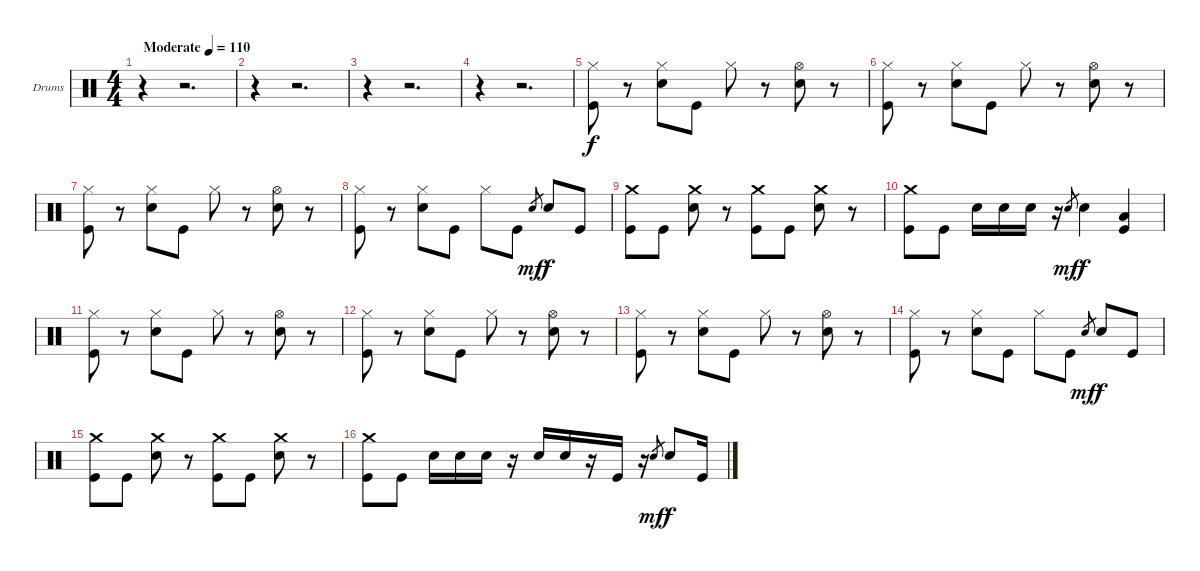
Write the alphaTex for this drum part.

\bracketExtendMode groupsimilarinstruments
\firstSystemTrackNameOrientation horizontal
\otherSystemsTrackNameOrientation horizontal
\track ("Drumkit" "Drums") {instrument percussion}
\staff {score}
\articulation defaults
\ts (4 4)
\beaming (8 2 2 2 2)
\tempo (110 "Moderate")
\clef neutral
\ks c
r.4{dy f} r.2{d} |
r.4 r.2{d} |
r.4 r.2{d} |
r.4 r.2{d} |
("Hi-Hat (closed)" "Kick (hit)").8 r.8 ("Hi-Hat (closed)" "Snare (hit) 2").8 "Kick (hit)".8 "Hi-Hat (closed)".8 r.8 ("Hi-Hat (open)" "Snare (hit) 2").8 r.8 |
("Hi-Hat (closed)" "Kick (hit)").8 r.8 ("Hi-Hat (closed)" "Snare (hit) 2").8 "Kick (hit)".8 "Hi-Hat (closed)".8 r.8 ("Hi-Hat (open)" "Snare (hit) 2").8 r.8 |
("Hi-Hat (closed)" "Kick (hit)").8 r.8 ("Hi-Hat (closed)" "Snare (hit) 2").8 "Kick (hit)".8 "Hi-Hat (closed)".8 r.8 ("Hi-Hat (open)" "Snare (hit) 2").8 r.8 |
("Hi-Hat (closed)" "Kick (hit)").8 r.8 ("Hi-Hat (closed)" "Snare (hit) 2").8 "Kick (hit)".8 "Hi-Hat (closed)".8 "Kick (hit)".8 "Snare (hit) 2".8{gr dy mf} "Snare (hit) 2".8{dy f} "Kick (hit)".8 |
("Crash medium (hit)" "Kick (hit)").8 "Kick (hit)".8 ("Crash medium (hit)" "Snare (hit) 2").8 r.8 ("Crash medium (hit)" "Kick (hit)").8 "Kick (hit)".8 ("Crash medium (hit)" "Snare (hit) 2").8 r.8 |
("Crash medium (hit)" "Kick (hit)").8 "Kick (hit)".8 "Snare (hit) 2".16 "Snare (hit) 2".16 "Snare (hit) 2".16 r.16 "Snare (hit) 2".8{gr dy mf} "Snare (hit) 2".4{dy f} ("Low Tom (hit)" "Kick (hit)").4 |
("Hi-Hat (closed)" "Kick (hit)").8 r.8 ("Hi-Hat (closed)" "Snare (hit) 2").8 "Kick (hit)".8 "Hi-Hat (closed)".8 r.8 ("Hi-Hat (open)" "Snare (hit) 2").8 r.8 |
("Hi-Hat (closed)" "Kick (hit)").8 r.8 ("Hi-Hat (closed)" "Snare (hit) 2").8 "Kick (hit)".8 "Hi-Hat (closed)".8 r.8 ("Hi-Hat (open)" "Snare (hit) 2").8 r.8 |
("Hi-Hat (closed)" "Kick (hit)").8 r.8 ("Hi-Hat (closed)" "Snare (hit) 2").8 "Kick (hit)".8 "Hi-Hat (closed)".8 r.8 ("Hi-Hat (open)" "Snare (hit) 2").8 r.8 |
("Hi-Hat (closed)" "Kick (hit)").8 r.8 ("Hi-Hat (closed)" "Snare (hit) 2").8 "Kick (hit)".8 "Hi-Hat (closed)".8 "Kick (hit)".8 "Snare (hit) 2".8{gr dy mf} "Snare (hit) 2".8{dy f} "Kick (hit)".8 |
("Crash medium (hit)" "Kick (hit)").8 "Kick (hit)".8 ("Crash medium (hit)" "Snare (hit) 2").8 r.8 ("Crash medium (hit)" "Kick (hit)").8 "Kick (hit)".8 ("Crash medium (hit)" "Snare (hit) 2").8 r.8 |
("Crash medium (hit)" "Kick (hit)").8 "Kick (hit)".8 "Snare (hit) 2".16 "Snare (hit) 2".16 "Snare (hit) 2".16 r.16 "Snare (hit) 2".16 "Snare (hit) 2".16 r.16 "Kick (hit)".16 r.16 "Snare (hit) 2".8{gr dy mf} "Snare (hit) 2".8{dy f} "Kick (hit)".16
